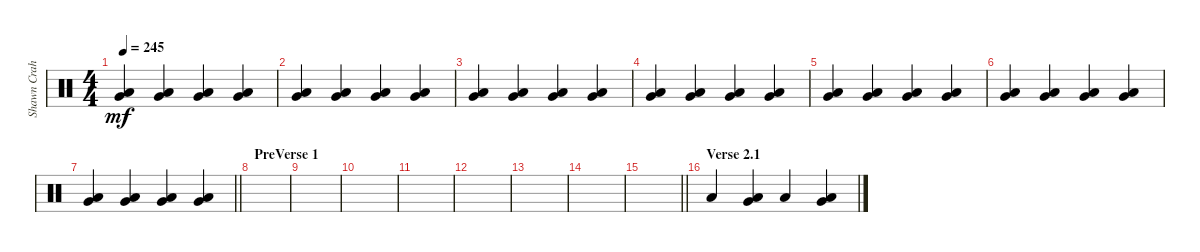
\track ("Shawn Crahan" "Shawn Crah") {instrument percussion}
\staff {score}
\articulation defaults
\ts (4 4)
\tempo 245
\clef neutral
\ks c
("Very Low Tom (hit)" "Low Floor Tom (hit)").4{dy mf} ("Very Low Tom (hit)" "Low Floor Tom (hit)").4 ("Very Low Tom (hit)" "Low Floor Tom (hit)").4 ("Very Low Tom (hit)" "Low Floor Tom (hit)").4 |
("Very Low Tom (hit)" "Low Floor Tom (hit)").4 ("Very Low Tom (hit)" "Low Floor Tom (hit)").4 ("Very Low Tom (hit)" "Low Floor Tom (hit)").4 ("Very Low Tom (hit)" "Low Floor Tom (hit)").4 |
("Very Low Tom (hit)" "Low Floor Tom (hit)").4 ("Very Low Tom (hit)" "Low Floor Tom (hit)").4 ("Very Low Tom (hit)" "Low Floor Tom (hit)").4 ("Very Low Tom (hit)" "Low Floor Tom (hit)").4 |
("Very Low Tom (hit)" "Low Floor Tom (hit)").4 ("Very Low Tom (hit)" "Low Floor Tom (hit)").4 ("Very Low Tom (hit)" "Low Floor Tom (hit)").4 ("Very Low Tom (hit)" "Low Floor Tom (hit)").4 |
("Very Low Tom (hit)" "Low Floor Tom (hit)").4 ("Very Low Tom (hit)" "Low Floor Tom (hit)").4 ("Very Low Tom (hit)" "Low Floor Tom (hit)").4 ("Very Low Tom (hit)" "Low Floor Tom (hit)").4 |
("Very Low Tom (hit)" "Low Floor Tom (hit)").4 ("Very Low Tom (hit)" "Low Floor Tom (hit)").4 ("Very Low Tom (hit)" "Low Floor Tom (hit)").4 ("Very Low Tom (hit)" "Low Floor Tom (hit)").4 |
\barLineRight lightlight
("Very Low Tom (hit)" "Low Floor Tom (hit)").4 ("Very Low Tom (hit)" "Low Floor Tom (hit)").4 ("Very Low Tom (hit)" "Low Floor Tom (hit)").4 ("Very Low Tom (hit)" "Low Floor Tom (hit)").4 |
\section ("" "PreVerse 1")
|
|
|
|
|
|
|
\barLineRight lightlight
|
\section ("" "Verse 2.1")
"Low Floor Tom (hit)".4 ("Very Low Tom (hit)" "Low Floor Tom (hit)").4 "Low Floor Tom (hit)".4 ("Very Low Tom (hit)" "Low Floor Tom (hit)").4
